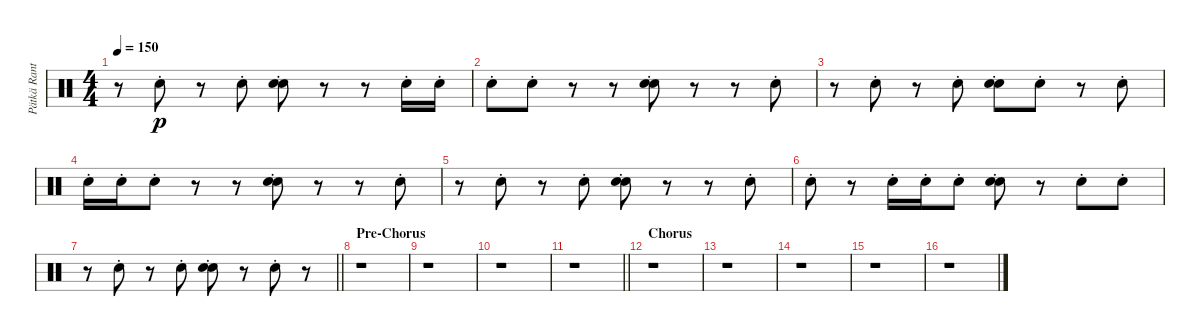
\track ("Pätkä Rantala (Drums)" "Pätkä Rant") {instrument percussion}
\staff {score}
\articulation defaults
\ts (4 4)
\tempo 150
\clef neutral
\ks c
r.8{dy p} "Electric Snare (hit)"{st}.8 r.8 "Electric Snare (hit)"{st}.8 ("Hand Clap (hit)"{st} "Electric Snare (hit)"{st}).8 r.8 r.8 "Electric Snare (hit)"{st}.16 "Electric Snare (hit)"{st}.16 |
"Electric Snare (hit)"{st}.8 "Electric Snare (hit)"{st}.8 r.8 r.8 ("Hand Clap (hit)"{st} "Electric Snare (hit)"{st}).8 r.8 r.8 "Electric Snare (hit)"{st}.8 |
r.8 "Electric Snare (hit)"{st}.8 r.8 "Electric Snare (hit)"{st}.8 ("Hand Clap (hit)"{st} "Electric Snare (hit)"{st}).8 "Electric Snare (hit)"{st}.8 r.8 "Electric Snare (hit)"{st}.8 |
"Electric Snare (hit)"{st}.16 "Electric Snare (hit)"{st}.16 "Electric Snare (hit)"{st}.8 r.8 r.8 ("Hand Clap (hit)"{st} "Electric Snare (hit)"{st}).8 r.8 r.8 "Electric Snare (hit)"{st}.8 |
r.8 "Electric Snare (hit)"{st}.8 r.8 "Electric Snare (hit)"{st}.8 ("Hand Clap (hit)"{st} "Electric Snare (hit)"{st}).8 r.8 r.8 "Electric Snare (hit)"{st}.8 |
"Electric Snare (hit)"{st}.8 r.8 "Electric Snare (hit)"{st}.16 "Electric Snare (hit)"{st}.16 "Electric Snare (hit)"{st}.8 ("Hand Clap (hit)"{st} "Electric Snare (hit)"{st}).8 r.8 "Electric Snare (hit)"{st}.8 "Electric Snare (hit)"{st}.8 |
\barLineRight lightlight
r.8 "Electric Snare (hit)"{st}.8 r.8 "Electric Snare (hit)"{st}.8 ("Hand Clap (hit)"{st} "Electric Snare (hit)"{st}).8 r.8 "Electric Snare (hit)"{st}.8 r.8 |
\section ("" "Pre-Chorus")
r.1 |
r.1 |
r.1 |
\barLineRight lightlight
r.1 |
\section ("" "Chorus")
r.1 |
r.1 |
r.1 |
r.1 |
r.1
